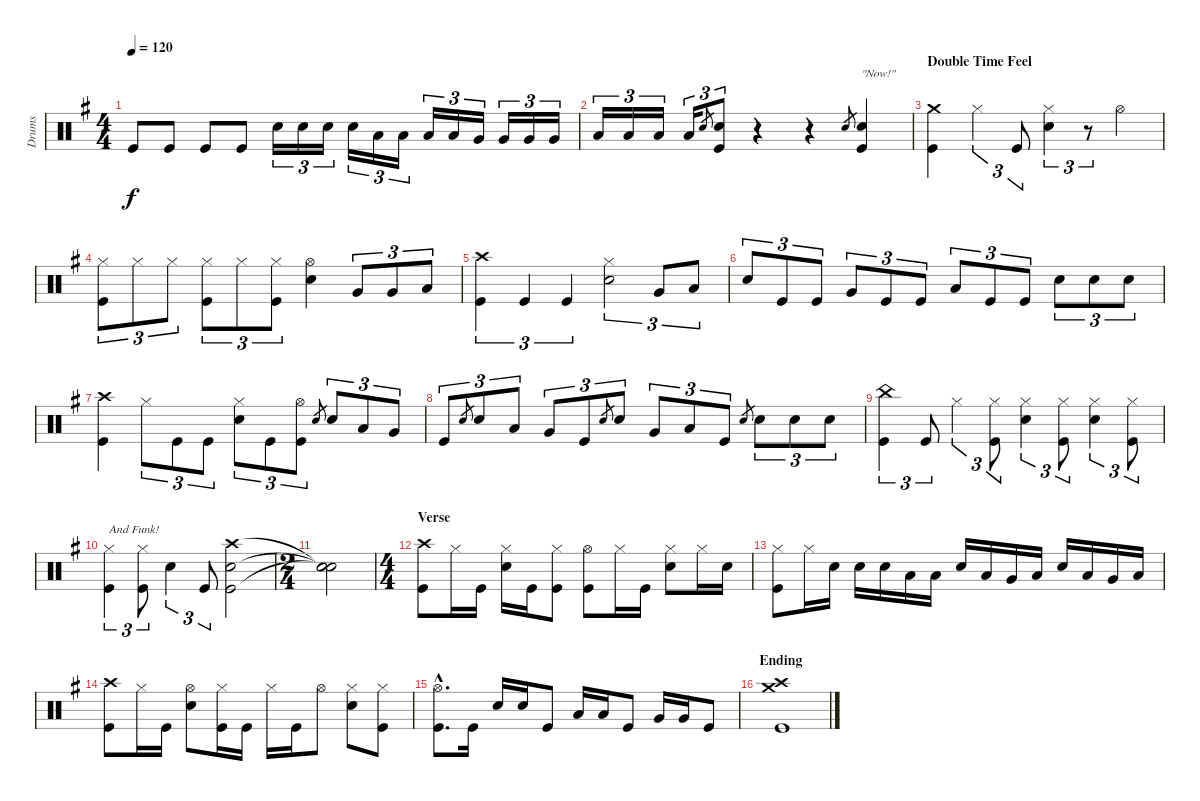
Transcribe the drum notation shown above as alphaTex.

\track ("Drums" "Drums") {instrument percussion}
\staff {score}
\articulation defaults
\ts (4 4)
\tempo 120
\clef neutral
\ks eminor "Kick (hit)"{t}.8{dy f} "Kick (hit)".8 "Kick (hit)".8 "Kick (hit)".8 "Snare (hit) 2".16{tu (3 2)} "Snare (hit) 2".16{tu (3 2)} "Snare (hit) 2".16{tu (3 2)} "Snare (hit) 2".16{tu (3 2)} "Low Tom (hit)".16{tu (3 2)} "Low Tom (hit)".16{tu (3 2)} "Low Tom (hit)".16{tu (3 2)} "Low Tom (hit)".16{tu (3 2)} "Very Low Tom (hit)".16{tu (3 2)} "Very Low Tom (hit)".16{tu (3 2)} "Very Low Tom (hit)".16{tu (3 2)} "Very Low Tom (hit)".16{tu (3 2)}
|
"Low Floor Tom (hit)".16{tu (3 2)} "Low Floor Tom (hit)".16{tu (3 2)} "Low Floor Tom (hit)".16{tu (3 2)} "Low Floor Tom (hit)".16{tu (3 2)} "Snare (hit) 2".8{gr} ("Snare (hit) 2" "Kick (hit)").8{tu (3 2)} r.4 r.4 "Snare (hit) 2".8{gr} ("Snare (hit) 2" "Kick (hit)").4{txt "\"Now!\""} |
\section ("" "Double Time Feel")
("Crash medium (hit)" "Kick (hit)").4 "Hi-Hat (closed)".4{tu (3 2)} "Kick (hit)".8{tu (3 2)} ("Hi-Hat (closed)" "Snare (hit) 2").4{tu (3 2)} r.8{tu (3 2)} "Hi-Hat (open)".4 |
("Hi-Hat (closed)" "Kick (hit)").8{tu (3 2)} "Hi-Hat (closed)".8{tu (3 2)} "Hi-Hat (closed)".8{tu (3 2)} ("Hi-Hat (closed)" "Kick (hit)").8{tu (3 2)} "Hi-Hat (closed)".8{tu (3 2)} ("Hi-Hat (closed)" "Kick (hit)").8{tu (3 2)} ("Hi-Hat (open)" "Snare (hit) 2").4 "Very Low Tom (hit)".8{tu (3 2)} "Very Low Tom (hit)".8{tu (3 2)} "Low Floor Tom (hit)".8{tu (3 2)} |
("Crash high (hit)" "Kick (hit)").4{tu (3 2)} "Kick (hit)".4{tu (3 2)} "Kick (hit)".4{tu (3 2)} ("Hi-Hat (closed)" "Snare (hit) 2").2{tu (3 2)} "Very Low Tom (hit)".8{tu (3 2)} "Low Floor Tom (hit)".8{tu (3 2)} |
"Snare (hit) 2".8{tu (3 2)} "Kick (hit)".8{tu (3 2)} "Kick (hit)".8{tu (3 2)} "Very Low Tom (hit)".8{tu (3 2)} "Kick (hit)".8{tu (3 2)} "Kick (hit)".8{tu (3 2)} "Low Floor Tom (hit)".8{tu (3 2)} "Kick (hit)".8{tu (3 2)} "Kick (hit)".8{tu (3 2)} "Snare (hit) 2".8{tu (3 2)} "Snare (hit) 2".8{tu (3 2)} "Snare (hit) 2".8{tu (3 2)} |
("Crash high (hit)" "Kick (hit)").4 "Hi-Hat (closed)".8{tu (3 2)} "Kick (hit)".8{tu (3 2)} "Kick (hit)".8{tu (3 2)} ("Hi-Hat (closed)" "Snare (hit) 2").8{tu (3 2)} "Kick (hit)".8{tu (3 2)} ("Hi-Hat (open)" "Kick (hit)").8{tu (3 2)} "Snare (hit) 2".8{gr} "Snare (hit) 2".8{tu (3 2)} "Low Tom (hit)".8{tu (3 2)} "Very Low Tom (hit)".8{tu (3 2)} |
"Kick (hit)".8{tu (3 2)} "Snare (hit) 2".8{gr} "Snare (hit) 2".8{tu (3 2)} "Low Tom (hit)".8{tu (3 2)} "Very Low Tom (hit)".8{tu (3 2)} "Kick (hit)".8{tu (3 2)} "Snare (hit) 2".8{gr} "Snare (hit) 2".8{tu (3 2)} "Very Low Tom (hit)".8{tu (3 2)} "Low Floor Tom (hit)".8{tu (3 2)} "Kick (hit)".8{tu (3 2)} "Snare (hit) 2".8{gr} "Snare (hit) 2".8{tu (3 2)} "Snare (hit) 2".8{tu (3 2)} "Snare (hit) 2".8{tu (3 2)} |
("China (hit)" "Kick (hit)").4{tu (3 2)} "Kick (hit)".8{tu (3 2)} "Hi-Hat (closed)".4{tu (3 2)} ("Hi-Hat (closed)" "Kick (hit)").8{tu (3 2)} ("Hi-Hat (closed)" "Snare (hit) 2").4{tu (3 2)} ("Hi-Hat (closed)" "Kick (hit)").8{tu (3 2)} ("Hi-Hat (closed)" "Snare (hit) 2").4{tu (3 2)} ("Hi-Hat (closed)" "Kick (hit)").8{tu (3 2)} |
("Hi-Hat (closed)" "Kick (hit)").4{tu (3 2) txt "And Funk!"} ("Hi-Hat (closed)" "Kick (hit)").8{tu (3 2)} "Snare (hit) 2".4{tu (3 2)} "Kick (hit)".8{tu (3 2)} ("Crash high (hit)" "Snare (hit) 2" "Kick (hit)").2 |
\ts (2 4)
("Snare (hit)"{t} "Snare (hit)"{t} "Snare (hit)"{t}).2 |
\ts (4 4)
\section ("" "Verse")
("Crash high (hit)" "Kick (hit)").8 "Hi-Hat (closed)".16 "Kick (hit)".16 ("Hi-Hat (closed)" "Snare (hit) 2").16 "Kick (hit)".16 ("Hi-Hat (closed)" "Kick (hit)").8 ("Hi-Hat (open)" "Kick (hit)").8 "Hi-Hat (closed)".16 "Kick (hit)".16 ("Hi-Hat (closed)" "Snare (hit) 2").8 "Hi-Hat (closed)".16 "Snare (hit) 2".16 |
("Hi-Hat (closed)" "Kick (hit)").8 "Hi-Hat (closed)".16 "Snare (hit) 2".16 "Snare (hit) 2".16 "Snare (hit) 2".16 "Low Tom (hit)".16 "Low Tom (hit)".16 "Snare (hit) 2".16 "Low Tom (hit)".16 "Very Low Tom (hit)".16 "Low Floor Tom (hit)".16 "Snare (hit) 2".16 "Low Tom (hit)".16 "Very Low Tom (hit)".16 "Low Floor Tom (hit)".16 |
("Crash high (hit)" "Kick (hit)").8 "Hi-Hat (closed)".16 "Kick (hit)".16 ("Hi-Hat (open)" "Snare (hit) 2").8 ("Hi-Hat (closed)" "Kick (hit)").16 "Kick (hit)".16 "Hi-Hat (closed)".16 "Kick (hit)".16 "Hi-Hat (open)".8 ("Hi-Hat (closed)" "Snare (hit) 2").8 ("Hi-Hat (closed)" "Kick (hit)").8 |
("Hi-Hat (open)"{hac} "Kick (hit)"{hac}).8{d} "Kick (hit)".16 "Snare (hit) 2".16 "Snare (hit) 2".16 "Kick (hit)".8 "Low Tom (hit)".16 "Low Tom (hit)".16 "Kick (hit)".8 "Very Low Tom (hit)".16 "Very Low Tom (hit)".16 "Kick (hit)".8 |
\section ("" "Ending")
("Crash high (hit)" "Crash medium (hit)" "Kick (hit)").1
